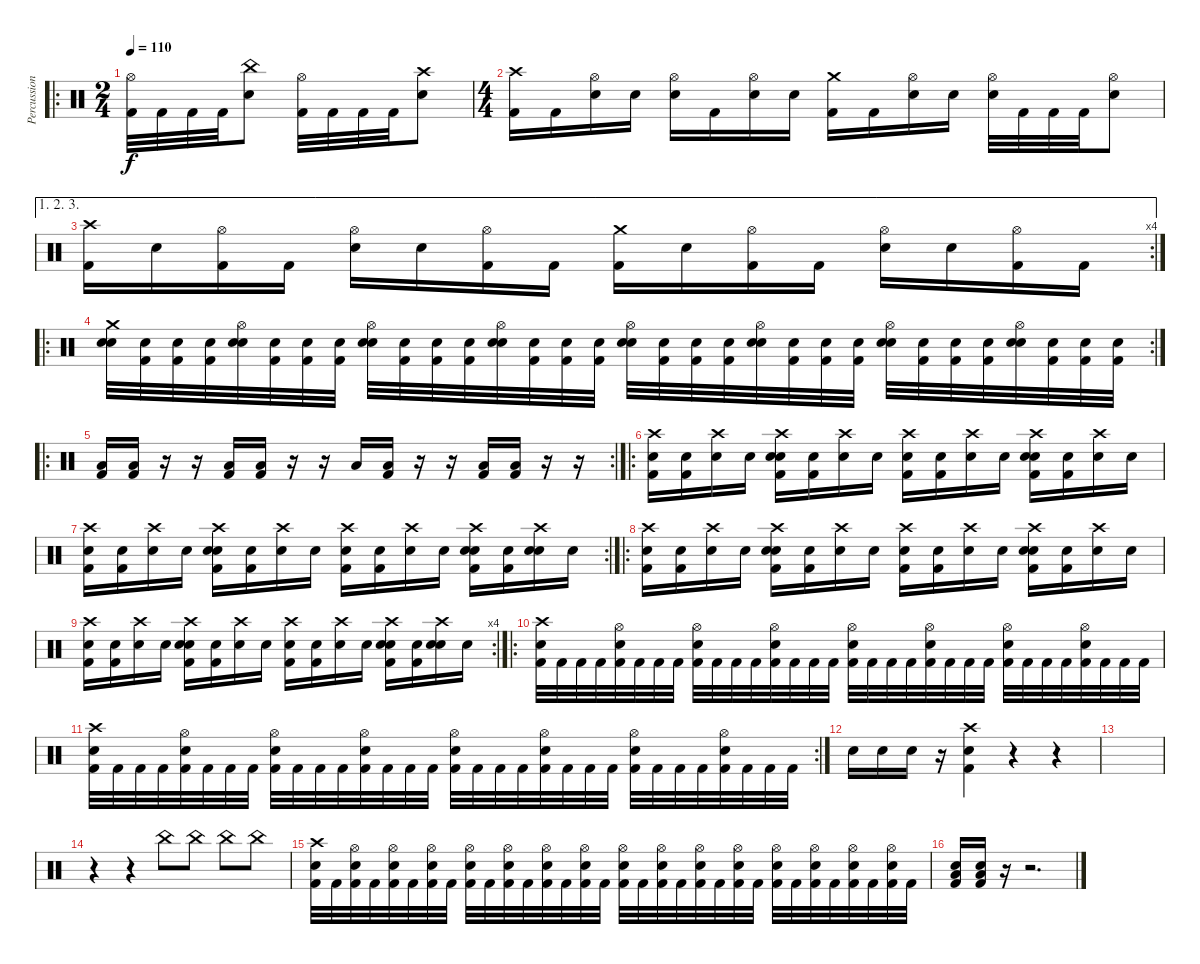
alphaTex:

\track ("Percussions" "Percussion") {instrument percussion}
\staff {score}
\articulation defaults
\ro
\ts (2 4)
\tempo 110
\clef neutral
\ks c
("Hi-Hat (open)" "Kick (hit) 2").32{dy f} "Kick (hit) 2".32 "Kick (hit) 2".32 "Kick (hit) 2".32 ("China (hit)" "Snare (hit) 2").8 ("Hi-Hat (open)" "Kick (hit) 2").32 "Kick (hit) 2".32 "Kick (hit) 2".32 "Kick (hit) 2".32 ("Crash high (hit)" "Snare (hit) 2").8 |
\ts (4 4)
("Crash high (hit)" "Kick (hit) 2").16 "Kick (hit) 2".16 ("Hi-Hat (open)" "Snare (hit)").16 "Snare (hit)".16 ("Hi-Hat (open)" "Snare (hit) 2").16 "Kick (hit) 2".16 ("Hi-Hat (open)" "Snare (hit)").16 "Snare (hit)".16 ("Crash medium (hit)" "Kick (hit) 2").16 "Kick (hit) 2".16 ("Hi-Hat (open)" "Snare (hit)").16 "Snare (hit)".16 ("Hi-Hat (open)" "Snare (hit) 2").32 "Kick (hit) 2".32 "Kick (hit) 2".32 "Kick (hit) 2".32 ("Hi-Hat (open)" "Snare (hit)").8 |
\ae (1 2 3)
\rc 4
("Crash high (hit)" "Kick (hit) 2").16 "Snare (hit)".16 ("Hi-Hat (open)" "Kick (hit) 2").16 "Kick (hit) 2".16 ("Hi-Hat (open)" "Snare (hit) 2").16 "Snare (hit)".16 ("Hi-Hat (open)" "Kick (hit) 2").16 "Kick (hit) 2".16 ("Crash medium (hit)" "Kick (hit) 2").16 "Snare (hit)".16 ("Hi-Hat (open)" "Kick (hit) 2").16 "Kick (hit) 2".16 ("Hi-Hat (open)" "Snare (hit) 2").16 "Snare (hit)".16 ("Hi-Hat (open)" "Kick (hit) 2").16 "Kick (hit) 2".16 |
\ro
\rc 2
("Crash medium (hit)" "Snare (hit) 2" "Snare (hit)").32 ("Kick (hit) 2" "Snare (hit)").32 ("Kick (hit) 2" "Snare (hit)").32 ("Kick (hit) 2" "Snare (hit)").32 ("Hi-Hat (open)" "Snare (hit) 2" "Snare (hit)").32 ("Kick (hit) 2" "Snare (hit)").32 ("Kick (hit) 2" "Snare (hit)").32 ("Kick (hit) 2" "Snare (hit)").32 ("Hi-Hat (open)" "Snare (hit) 2" "Snare (hit)").32 ("Kick (hit) 2" "Snare (hit)").32 ("Kick (hit) 2" "Snare (hit)").32 ("Kick (hit) 2" "Snare (hit)").32 ("Hi-Hat (open)" "Snare (hit) 2" "Snare (hit)").32 ("Kick (hit) 2" "Snare (hit)").32 ("Kick (hit) 2" "Snare (hit)").32 ("Kick (hit) 2" "Snare (hit)").32 ("Hi-Hat (open)" "Snare (hit) 2" "Snare (hit)").32 ("Kick (hit) 2" "Snare (hit)").32 ("Kick (hit) 2" "Snare (hit)").32 ("Kick (hit) 2" "Snare (hit)").32 ("Hi-Hat (open)" "Snare (hit) 2" "Snare (hit)").32 ("Kick (hit) 2" "Snare (hit)").32 ("Kick (hit) 2" "Snare (hit)").32 ("Kick (hit) 2" "Snare (hit)").32 ("Hi-Hat (open)" "Snare (hit) 2" "Snare (hit)").32 ("Kick (hit) 2" "Snare (hit)").32 ("Kick (hit) 2" "Snare (hit)").32 ("Kick (hit) 2" "Snare (hit)").32 ("Hi-Hat (open)" "Snare (hit) 2" "Snare (hit)").32 ("Kick (hit) 2" "Snare (hit)").32 ("Kick (hit) 2" "Snare (hit)").32 ("Kick (hit) 2" "Snare (hit)").32 |
\ro
\rc 2
("Kick (hit) 2" "Low Tom (hit)").16 ("Kick (hit) 2" "Low Tom (hit)").16 r.16 r.16 ("Kick (hit) 2" "Low Tom (hit)").16 ("Kick (hit) 2" "Low Tom (hit)").16 r.16 r.16 "Low Tom (hit)".16 ("Kick (hit) 2" "Low Tom (hit)").16 r.16 r.16 ("Kick (hit) 2" "Low Tom (hit)").16 ("Kick (hit) 2" "Low Tom (hit)").16 r.16 r.16 |
\ro
("Crash high (hit)" "Kick (hit) 2" "Snare (hit)").16 ("Kick (hit) 2" "Snare (hit)").16 ("Crash high (hit)" "Snare (hit)").16 "Snare (hit)".16 ("Crash high (hit)" "Snare (hit) 2" "Kick (hit) 2" "Snare (hit)").16 ("Kick (hit) 2" "Snare (hit)").16 ("Crash high (hit)" "Snare (hit)").16 "Snare (hit)".16 ("Crash high (hit)" "Kick (hit) 2" "Snare (hit)").16 ("Kick (hit) 2" "Snare (hit)").16 ("Crash high (hit)" "Snare (hit)").16 "Snare (hit)".16 ("Crash high (hit)" "Snare (hit) 2" "Kick (hit) 2" "Snare (hit)").16 ("Kick (hit) 2" "Snare (hit)").16 ("Crash high (hit)" "Snare (hit)").16 "Snare (hit)".16 |
\rc 2
("Crash high (hit)" "Kick (hit) 2" "Snare (hit)").16 ("Kick (hit) 2" "Snare (hit)").16 ("Crash high (hit)" "Snare (hit)").16 "Snare (hit)".16 ("Crash high (hit)" "Snare (hit) 2" "Kick (hit) 2" "Snare (hit)").16 ("Kick (hit) 2" "Snare (hit)").16 ("Crash high (hit)" "Snare (hit)").16 "Snare (hit)".16 ("Crash high (hit)" "Kick (hit) 2" "Snare (hit)").16 ("Kick (hit) 2" "Snare (hit)").16 ("Crash high (hit)" "Snare (hit)").16 "Snare (hit)".16 ("Crash high (hit)" "Snare (hit) 2" "Kick (hit) 2" "Snare (hit)").16 ("Kick (hit) 2" "Snare (hit)").16 ("Crash high (hit)" "Snare (hit) 2" "Snare (hit)").16 "Snare (hit)".16 |
\ro
("Crash high (hit)" "Kick (hit) 2" "Snare (hit)").16 ("Kick (hit) 2" "Snare (hit)").16 ("Crash high (hit)" "Snare (hit)").16 "Snare (hit)".16 ("Crash high (hit)" "Snare (hit) 2" "Kick (hit) 2" "Snare (hit)").16 ("Kick (hit) 2" "Snare (hit)").16 ("Crash high (hit)" "Snare (hit)").16 "Snare (hit)".16 ("Crash high (hit)" "Kick (hit) 2" "Snare (hit)").16 ("Kick (hit) 2" "Snare (hit)").16 ("Crash high (hit)" "Snare (hit)").16 "Snare (hit)".16 ("Crash high (hit)" "Snare (hit) 2" "Kick (hit) 2" "Snare (hit)").16 ("Kick (hit) 2" "Snare (hit)").16 ("Crash high (hit)" "Snare (hit)").16 "Snare (hit)".16 |
\rc 4
("Crash high (hit)" "Kick (hit) 2" "Snare (hit)").16 ("Kick (hit) 2" "Snare (hit)").16 ("Crash high (hit)" "Snare (hit)").16 "Snare (hit)".16 ("Crash high (hit)" "Snare (hit) 2" "Kick (hit) 2" "Snare (hit)").16 ("Kick (hit) 2" "Snare (hit)").16 ("Crash high (hit)" "Snare (hit)").16 "Snare (hit)".16 ("Crash high (hit)" "Kick (hit) 2" "Snare (hit)").16 ("Kick (hit) 2" "Snare (hit)").16 ("Crash high (hit)" "Snare (hit)").16 "Snare (hit)".16 ("Crash high (hit)" "Snare (hit) 2" "Kick (hit) 2" "Snare (hit)").16 ("Kick (hit) 2" "Snare (hit)").16 ("Crash high (hit)" "Snare (hit) 2" "Snare (hit)").16 "Snare (hit)".16 |
\ro
("Crash high (hit)" "Snare (hit) 2" "Kick (hit) 2").32 "Kick (hit) 2".32 "Kick (hit) 2".32 "Kick (hit) 2".32 ("Hi-Hat (open)" "Snare (hit) 2" "Kick (hit) 2").32 "Kick (hit) 2".32 "Kick (hit) 2".32 "Kick (hit) 2".32 ("Hi-Hat (open)" "Snare (hit) 2" "Kick (hit) 2").32 "Kick (hit) 2".32 "Kick (hit) 2".32 "Kick (hit) 2".32 ("Hi-Hat (open)" "Snare (hit) 2" "Kick (hit) 2").32 "Kick (hit) 2".32 "Kick (hit) 2".32 "Kick (hit) 2".32 ("Hi-Hat (open)" "Snare (hit) 2" "Kick (hit) 2").32 "Kick (hit) 2".32 "Kick (hit) 2".32 "Kick (hit) 2".32 ("Hi-Hat (open)" "Snare (hit) 2" "Kick (hit) 2").32 "Kick (hit) 2".32 "Kick (hit) 2".32 "Kick (hit) 2".32 ("Hi-Hat (open)" "Kick (hit) 2" "Snare (hit) 2").32 "Kick (hit) 2".32 "Kick (hit) 2".32 "Kick (hit) 2".32 ("Hi-Hat (open)" "Snare (hit) 2" "Kick (hit) 2").32 "Kick (hit) 2".32 "Kick (hit) 2".32 "Kick (hit) 2".32 |
\rc 2
("Crash high (hit)" "Snare (hit) 2" "Kick (hit) 2").32 "Kick (hit) 2".32 "Kick (hit) 2".32 "Kick (hit) 2".32 ("Hi-Hat (open)" "Snare (hit) 2" "Kick (hit) 2").32 "Kick (hit) 2".32 "Kick (hit) 2".32 "Kick (hit) 2".32 ("Hi-Hat (open)" "Snare (hit) 2" "Kick (hit) 2").32 "Kick (hit) 2".32 "Kick (hit) 2".32 "Kick (hit) 2".32 ("Hi-Hat (open)" "Snare (hit) 2" "Kick (hit) 2").32 "Kick (hit) 2".32 "Kick (hit) 2".32 "Kick (hit) 2".32 ("Hi-Hat (open)" "Snare (hit) 2" "Kick (hit) 2").32 "Kick (hit) 2".32 "Kick (hit) 2".32 "Kick (hit) 2".32 ("Hi-Hat (open)" "Snare (hit) 2" "Kick (hit) 2").32 "Kick (hit) 2".32 "Kick (hit) 2".32 "Kick (hit) 2".32 ("Hi-Hat (open)" "Kick (hit) 2" "Snare (hit) 2").32 "Kick (hit) 2".32 "Kick (hit) 2".32 "Kick (hit) 2".32 ("Hi-Hat (open)" "Snare (hit) 2" "Kick (hit) 2").32 "Kick (hit) 2".32 "Kick (hit) 2".32 "Kick (hit) 2".32 |
"Snare (hit) 2".16 "Snare (hit) 2".16 "Snare (hit) 2".16 r.16 ("Crash high (hit)" "Kick (hit) 2" "Snare (hit) 2").4 r.4 r.4 |
|
r.4 r.4 "China (hit)".8 "China (hit)".8 "China (hit)".8 "China (hit)".8 |
("Crash high (hit)" "Snare (hit) 2" "Kick (hit) 2").32 "Kick (hit) 2".32 ("Hi-Hat (open)" "Snare (hit) 2" "Kick (hit) 2").32 "Kick (hit) 2".32 ("Hi-Hat (open)" "Snare (hit) 2" "Kick (hit) 2").32 "Kick (hit) 2".32 ("Hi-Hat (open)" "Snare (hit) 2" "Kick (hit) 2").32 "Kick (hit) 2".32 ("Hi-Hat (open)" "Snare (hit) 2" "Kick (hit) 2").32 "Kick (hit) 2".32 ("Hi-Hat (open)" "Snare (hit) 2" "Kick (hit) 2").32 "Kick (hit) 2".32 ("Hi-Hat (open)" "Snare (hit) 2" "Kick (hit) 2").32 "Kick (hit) 2".32 ("Hi-Hat (open)" "Snare (hit) 2" "Kick (hit) 2").32 "Kick (hit) 2".32 ("Hi-Hat (open)" "Snare (hit) 2" "Kick (hit) 2").32 "Kick (hit) 2".32 ("Hi-Hat (open)" "Snare (hit) 2" "Kick (hit) 2").32 "Kick (hit) 2".32 ("Hi-Hat (open)" "Snare (hit) 2" "Kick (hit) 2").32 "Kick (hit) 2".32 ("Hi-Hat (open)" "Snare (hit) 2" "Kick (hit) 2").32 "Kick (hit) 2".32 ("Hi-Hat (open)" "Kick (hit) 2" "Snare (hit) 2").32 "Kick (hit) 2".32 ("Hi-Hat (open)" "Snare (hit) 2" "Kick (hit) 2").32 "Kick (hit) 2".32 ("Hi-Hat (open)" "Snare (hit) 2" "Kick (hit) 2").32 "Kick (hit) 2".32 ("Hi-Hat (open)" "Snare (hit) 2" "Kick (hit) 2").32 "Kick (hit) 2".32 |
("Low Tom (hit)" "Snare (hit) 2" "Kick (hit) 2").16 ("Low Tom (hit)" "Snare (hit) 2" "Kick (hit) 2").16 r.16 r.2{d}
